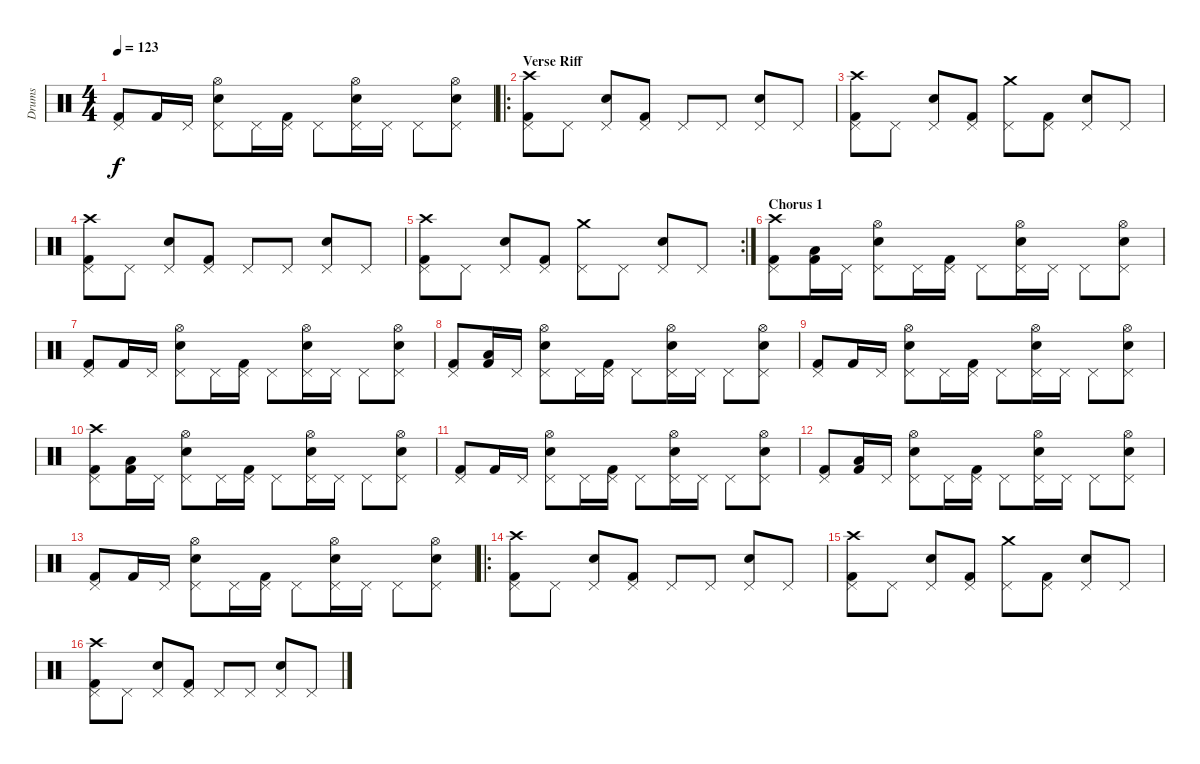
\track ("Drums" "Drums") {instrument percussion}
\staff {score}
\articulation defaults
\ts (4 4)
\tempo 123
\clef neutral
\ks c
("Kick (hit) 2" "Pedal Hi-Hat (hit)").8{dy f} "Kick (hit) 2".16 "Pedal Hi-Hat (hit)".16 ("Snare (hit) 2" "Pedal Hi-Hat (hit)" "Hi-Hat (open)").8 "Pedal Hi-Hat (hit)".16 ("Kick (hit) 2" "Pedal Hi-Hat (hit)").16 "Pedal Hi-Hat (hit)".8 ("Snare (hit) 2" "Pedal Hi-Hat (hit)" "Hi-Hat (open)").16 "Pedal Hi-Hat (hit)".16 "Pedal Hi-Hat (hit)".8 ("Snare (hit) 2" "Pedal Hi-Hat (hit)" "Hi-Hat (open)").8 |
\ro
\section ("" "Verse Riff")
("Kick (hit) 2" "Pedal Hi-Hat (hit)" "Crash high (hit)").8 "Pedal Hi-Hat (hit)".8 ("Snare (hit) 2" "Pedal Hi-Hat (hit)").8 ("Kick (hit) 2" "Pedal Hi-Hat (hit)").8 "Pedal Hi-Hat (hit)".8 "Pedal Hi-Hat (hit)".8 ("Snare (hit) 2" "Pedal Hi-Hat (hit)").8 "Pedal Hi-Hat (hit)".8 |
("Kick (hit) 2" "Pedal Hi-Hat (hit)" "Crash high (hit)").8 "Pedal Hi-Hat (hit)".8 ("Snare (hit) 2" "Pedal Hi-Hat (hit)").8 ("Kick (hit) 2" "Pedal Hi-Hat (hit)").8 ("Pedal Hi-Hat (hit)" "Crash medium (hit)").8 ("Kick (hit) 2" "Pedal Hi-Hat (hit)").8 ("Snare (hit) 2" "Pedal Hi-Hat (hit)").8 "Pedal Hi-Hat (hit)".8 |
("Kick (hit) 2" "Pedal Hi-Hat (hit)" "Crash high (hit)").8 "Pedal Hi-Hat (hit)".8 ("Snare (hit) 2" "Pedal Hi-Hat (hit)").8 ("Kick (hit) 2" "Pedal Hi-Hat (hit)").8 "Pedal Hi-Hat (hit)".8 "Pedal Hi-Hat (hit)".8 ("Snare (hit) 2" "Pedal Hi-Hat (hit)").8 "Pedal Hi-Hat (hit)".8 |
\rc 2
("Kick (hit) 2" "Pedal Hi-Hat (hit)" "Crash high (hit)").8 "Pedal Hi-Hat (hit)".8 ("Snare (hit) 2" "Pedal Hi-Hat (hit)").8 ("Kick (hit) 2" "Pedal Hi-Hat (hit)").8 ("Pedal Hi-Hat (hit)" "Crash medium (hit)").8 "Pedal Hi-Hat (hit)".8 ("Snare (hit) 2" "Pedal Hi-Hat (hit)").8 "Pedal Hi-Hat (hit)".8 |
\section ("" "Chorus 1")
("Kick (hit) 2" "Pedal Hi-Hat (hit)" "Crash high (hit)").8 ("Kick (hit) 2" "Low Tom (hit)").16 "Pedal Hi-Hat (hit)".16 ("Snare (hit) 2" "Pedal Hi-Hat (hit)" "Hi-Hat (open)").8 "Pedal Hi-Hat (hit)".16 ("Kick (hit) 2" "Pedal Hi-Hat (hit)").16 "Pedal Hi-Hat (hit)".8 ("Snare (hit) 2" "Pedal Hi-Hat (hit)" "Hi-Hat (open)").16 "Pedal Hi-Hat (hit)".16 "Pedal Hi-Hat (hit)".8 ("Snare (hit) 2" "Pedal Hi-Hat (hit)" "Hi-Hat (open)").8 |
("Kick (hit) 2" "Pedal Hi-Hat (hit)").8 "Kick (hit) 2".16 "Pedal Hi-Hat (hit)".16 ("Snare (hit) 2" "Pedal Hi-Hat (hit)" "Hi-Hat (open)").8 "Pedal Hi-Hat (hit)".16 ("Kick (hit) 2" "Pedal Hi-Hat (hit)").16 "Pedal Hi-Hat (hit)".8 ("Snare (hit) 2" "Pedal Hi-Hat (hit)" "Hi-Hat (open)").16 "Pedal Hi-Hat (hit)".16 "Pedal Hi-Hat (hit)".8 ("Snare (hit) 2" "Pedal Hi-Hat (hit)" "Hi-Hat (open)").8 |
("Kick (hit) 2" "Pedal Hi-Hat (hit)").8 ("Kick (hit) 2" "Low Tom (hit)").16 "Pedal Hi-Hat (hit)".16 ("Snare (hit) 2" "Pedal Hi-Hat (hit)" "Hi-Hat (open)").8 "Pedal Hi-Hat (hit)".16 ("Kick (hit) 2" "Pedal Hi-Hat (hit)").16 "Pedal Hi-Hat (hit)".8 ("Snare (hit) 2" "Pedal Hi-Hat (hit)" "Hi-Hat (open)").16 "Pedal Hi-Hat (hit)".16 "Pedal Hi-Hat (hit)".8 ("Snare (hit) 2" "Pedal Hi-Hat (hit)" "Hi-Hat (open)").8 |
("Kick (hit) 2" "Pedal Hi-Hat (hit)").8 "Kick (hit) 2".16 "Pedal Hi-Hat (hit)".16 ("Snare (hit) 2" "Pedal Hi-Hat (hit)" "Hi-Hat (open)").8 "Pedal Hi-Hat (hit)".16 ("Kick (hit) 2" "Pedal Hi-Hat (hit)").16 "Pedal Hi-Hat (hit)".8 ("Snare (hit) 2" "Pedal Hi-Hat (hit)" "Hi-Hat (open)").16 "Pedal Hi-Hat (hit)".16 "Pedal Hi-Hat (hit)".8 ("Snare (hit) 2" "Pedal Hi-Hat (hit)" "Hi-Hat (open)").8 |
("Kick (hit) 2" "Pedal Hi-Hat (hit)" "Crash high (hit)").8 ("Kick (hit) 2" "Low Tom (hit)").16 "Pedal Hi-Hat (hit)".16 ("Snare (hit) 2" "Pedal Hi-Hat (hit)" "Hi-Hat (open)").8 "Pedal Hi-Hat (hit)".16 ("Kick (hit) 2" "Pedal Hi-Hat (hit)").16 "Pedal Hi-Hat (hit)".8 ("Snare (hit) 2" "Pedal Hi-Hat (hit)" "Hi-Hat (open)").16 "Pedal Hi-Hat (hit)".16 "Pedal Hi-Hat (hit)".8 ("Snare (hit) 2" "Pedal Hi-Hat (hit)" "Hi-Hat (open)").8 |
("Kick (hit) 2" "Pedal Hi-Hat (hit)").8 "Kick (hit) 2".16 "Pedal Hi-Hat (hit)".16 ("Snare (hit) 2" "Pedal Hi-Hat (hit)" "Hi-Hat (open)").8 "Pedal Hi-Hat (hit)".16 ("Kick (hit) 2" "Pedal Hi-Hat (hit)").16 "Pedal Hi-Hat (hit)".8 ("Snare (hit) 2" "Pedal Hi-Hat (hit)" "Hi-Hat (open)").16 "Pedal Hi-Hat (hit)".16 "Pedal Hi-Hat (hit)".8 ("Snare (hit) 2" "Pedal Hi-Hat (hit)" "Hi-Hat (open)").8 |
("Kick (hit) 2" "Pedal Hi-Hat (hit)").8 ("Kick (hit) 2" "Low Tom (hit)").16 "Pedal Hi-Hat (hit)".16 ("Snare (hit) 2" "Pedal Hi-Hat (hit)" "Hi-Hat (open)").8 "Pedal Hi-Hat (hit)".16 ("Kick (hit) 2" "Pedal Hi-Hat (hit)").16 "Pedal Hi-Hat (hit)".8 ("Snare (hit) 2" "Pedal Hi-Hat (hit)" "Hi-Hat (open)").16 "Pedal Hi-Hat (hit)".16 "Pedal Hi-Hat (hit)".8 ("Snare (hit) 2" "Pedal Hi-Hat (hit)" "Hi-Hat (open)").8 |
("Kick (hit) 2" "Pedal Hi-Hat (hit)").8 "Kick (hit) 2".16 "Pedal Hi-Hat (hit)".16 ("Snare (hit) 2" "Pedal Hi-Hat (hit)" "Hi-Hat (open)").8 "Pedal Hi-Hat (hit)".16 ("Kick (hit) 2" "Pedal Hi-Hat (hit)").16 "Pedal Hi-Hat (hit)".8 ("Snare (hit) 2" "Pedal Hi-Hat (hit)" "Hi-Hat (open)").16 "Pedal Hi-Hat (hit)".16 "Pedal Hi-Hat (hit)".8 ("Snare (hit) 2" "Pedal Hi-Hat (hit)" "Hi-Hat (open)").8 |
\ro
("Kick (hit) 2" "Pedal Hi-Hat (hit)" "Crash high (hit)").8 "Pedal Hi-Hat (hit)".8 ("Snare (hit) 2" "Pedal Hi-Hat (hit)").8 ("Kick (hit) 2" "Pedal Hi-Hat (hit)").8 "Pedal Hi-Hat (hit)".8 "Pedal Hi-Hat (hit)".8 ("Snare (hit) 2" "Pedal Hi-Hat (hit)").8 "Pedal Hi-Hat (hit)".8 |
("Kick (hit) 2" "Pedal Hi-Hat (hit)" "Crash high (hit)").8 "Pedal Hi-Hat (hit)".8 ("Snare (hit) 2" "Pedal Hi-Hat (hit)").8 ("Kick (hit) 2" "Pedal Hi-Hat (hit)").8 ("Pedal Hi-Hat (hit)" "Crash medium (hit)").8 ("Kick (hit) 2" "Pedal Hi-Hat (hit)").8 ("Snare (hit) 2" "Pedal Hi-Hat (hit)").8 "Pedal Hi-Hat (hit)".8 |
("Kick (hit) 2" "Pedal Hi-Hat (hit)" "Crash high (hit)").8 "Pedal Hi-Hat (hit)".8 ("Snare (hit) 2" "Pedal Hi-Hat (hit)").8 ("Kick (hit) 2" "Pedal Hi-Hat (hit)").8 "Pedal Hi-Hat (hit)".8 "Pedal Hi-Hat (hit)".8 ("Snare (hit) 2" "Pedal Hi-Hat (hit)").8 "Pedal Hi-Hat (hit)".8
